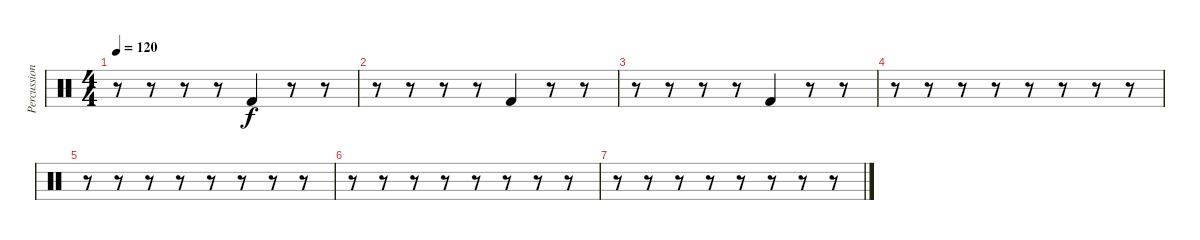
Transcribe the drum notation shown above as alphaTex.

\track ("Percussion" "Percussion") {instrument percussion}
\staff {score}
\articulation defaults
\ts (4 4)
\tempo 120
\clef neutral
\ks c
r.8{dy f} r.8 r.8 r.8 "Kick (hit) 2".4 r.8 r.8 |
r.8 r.8 r.8 r.8 "Kick (hit) 2".4 r.8 r.8 |
r.8 r.8 r.8 r.8 "Kick (hit) 2".4 r.8 r.8 |
r.8 r.8 r.8 r.8 r.8 r.8 r.8 r.8 |
r.8 r.8 r.8 r.8 r.8 r.8 r.8 r.8 |
r.8 r.8 r.8 r.8 r.8 r.8 r.8 r.8 |
r.8 r.8 r.8 r.8 r.8 r.8 r.8 r.8
